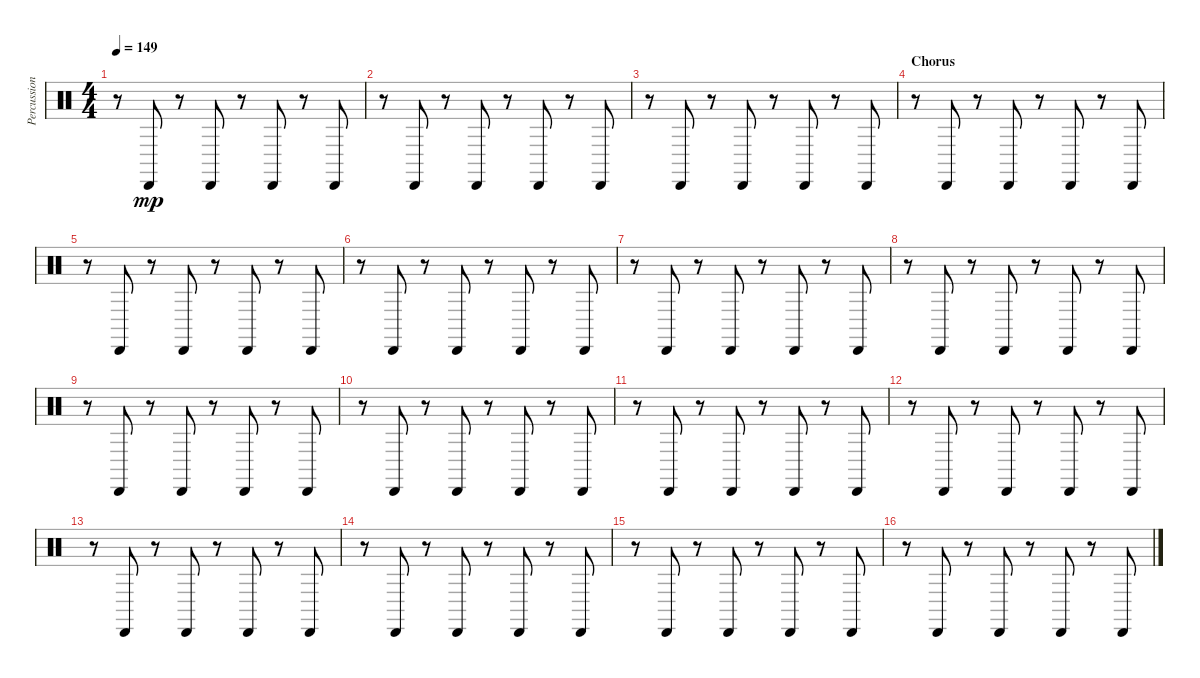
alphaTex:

\track ("Percussion 2" "Percussion") {instrument percussion}
\staff {score}
\articulation defaults
\ts (4 4)
\tempo 149
\clef neutral
\ks c
r.8{dy mp} "Cabasa (hit)".8 r.8 "Cabasa (hit)".8 r.8 "Cabasa (hit)".8 r.8 "Cabasa (hit)".8 |
r.8 "Cabasa (hit)".8 r.8 "Cabasa (hit)".8 r.8 "Cabasa (hit)".8 r.8 "Cabasa (hit)".8 |
r.8 "Cabasa (hit)".8 r.8 "Cabasa (hit)".8 r.8 "Cabasa (hit)".8 r.8 "Cabasa (hit)".8 |
\section ("" "Chorus")
r.8 "Cabasa (hit)".8 r.8 "Cabasa (hit)".8 r.8 "Cabasa (hit)".8 r.8 "Cabasa (hit)".8 |
r.8 "Cabasa (hit)".8 r.8 "Cabasa (hit)".8 r.8 "Cabasa (hit)".8 r.8 "Cabasa (hit)".8 |
r.8 "Cabasa (hit)".8 r.8 "Cabasa (hit)".8 r.8 "Cabasa (hit)".8 r.8 "Cabasa (hit)".8 |
r.8 "Cabasa (hit)".8 r.8 "Cabasa (hit)".8 r.8 "Cabasa (hit)".8 r.8 "Cabasa (hit)".8 |
r.8 "Cabasa (hit)".8 r.8 "Cabasa (hit)".8 r.8 "Cabasa (hit)".8 r.8 "Cabasa (hit)".8 |
r.8 "Cabasa (hit)".8 r.8 "Cabasa (hit)".8 r.8 "Cabasa (hit)".8 r.8 "Cabasa (hit)".8 |
r.8 "Cabasa (hit)".8 r.8 "Cabasa (hit)".8 r.8 "Cabasa (hit)".8 r.8 "Cabasa (hit)".8 |
r.8 "Cabasa (hit)".8 r.8 "Cabasa (hit)".8 r.8 "Cabasa (hit)".8 r.8 "Cabasa (hit)".8 |
r.8 "Cabasa (hit)".8 r.8 "Cabasa (hit)".8 r.8 "Cabasa (hit)".8 r.8 "Cabasa (hit)".8 |
r.8 "Cabasa (hit)".8 r.8 "Cabasa (hit)".8 r.8 "Cabasa (hit)".8 r.8 "Cabasa (hit)".8 |
r.8 "Cabasa (hit)".8 r.8 "Cabasa (hit)".8 r.8 "Cabasa (hit)".8 r.8 "Cabasa (hit)".8 |
r.8 "Cabasa (hit)".8 r.8 "Cabasa (hit)".8 r.8 "Cabasa (hit)".8 r.8 "Cabasa (hit)".8 |
r.8 "Cabasa (hit)".8 r.8 "Cabasa (hit)".8 r.8 "Cabasa (hit)".8 r.8 "Cabasa (hit)".8
